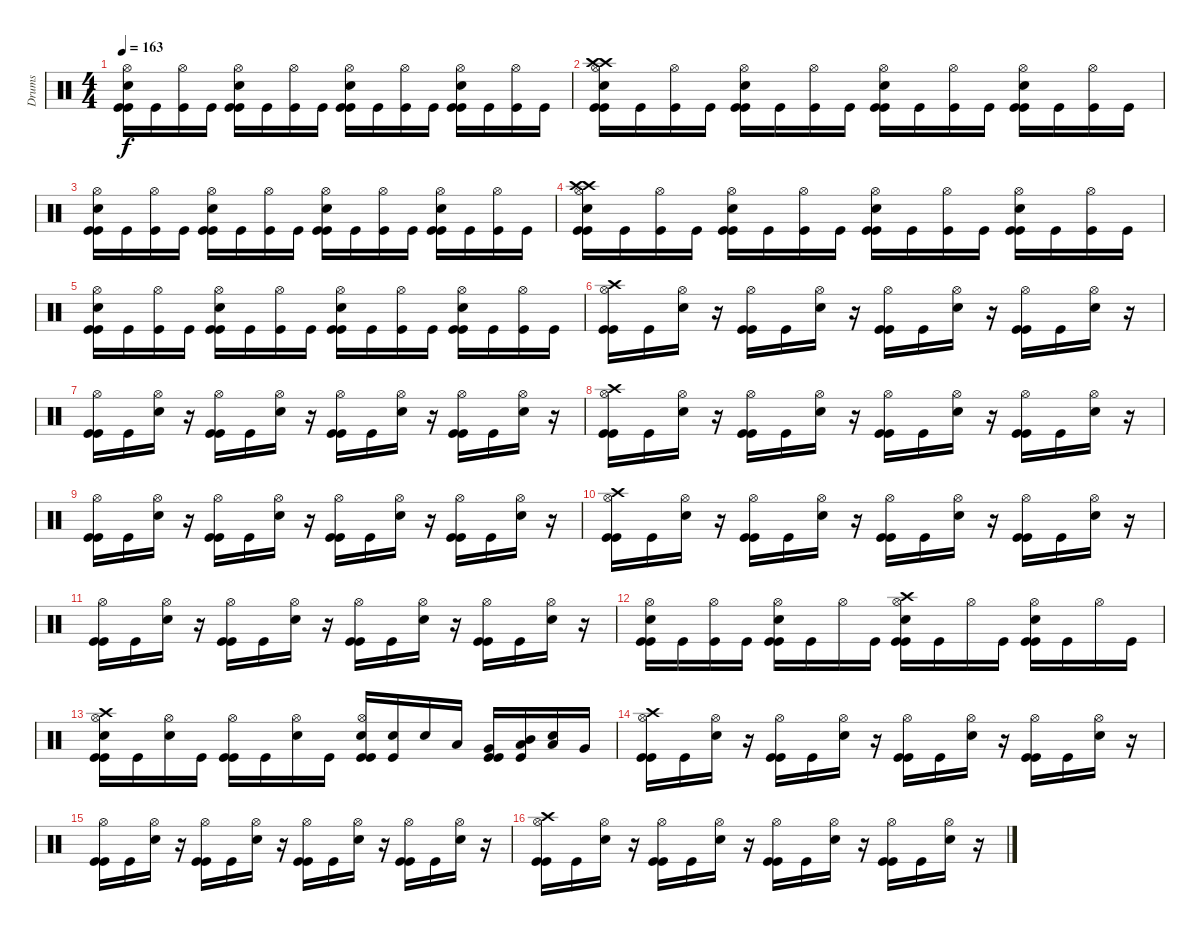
\track ("Drums" "Drums") {instrument percussion}
\staff {score}
\articulation defaults
\ts (4 4)
\tempo 163
\clef neutral
\ks c
("Electric Snare (hit)" "Hi-Hat (open)" "Kick (hit)" "Kick (hit)").16{dy f} "Kick (hit)".16 ("Kick (hit)" "Hi-Hat (open)").16 "Kick (hit)".16 ("Electric Snare (hit)" "Hi-Hat (open)" "Kick (hit)" "Kick (hit)").16 "Kick (hit)".16 ("Kick (hit)" "Hi-Hat (open)").16 "Kick (hit)".16 ("Electric Snare (hit)" "Hi-Hat (open)" "Kick (hit)" "Kick (hit)").16 "Kick (hit)".16 ("Kick (hit)" "Hi-Hat (open)").16 "Kick (hit)".16 ("Electric Snare (hit)" "Hi-Hat (open)" "Kick (hit)" "Kick (hit)").16 "Kick (hit)".16 ("Kick (hit)" "Hi-Hat (open)").16 "Kick (hit)".16 |
("Electric Snare (hit)" "Crash high (hit)" "Crash high (hit)" "Hi-Hat (open)" "Kick (hit)" "Kick (hit)").16 "Kick (hit)".16 ("Kick (hit)" "Hi-Hat (open)").16 "Kick (hit)".16 ("Electric Snare (hit)" "Hi-Hat (open)" "Kick (hit)" "Kick (hit)").16 "Kick (hit)".16 ("Kick (hit)" "Hi-Hat (open)").16 "Kick (hit)".16 ("Electric Snare (hit)" "Hi-Hat (open)" "Kick (hit)" "Kick (hit)").16 "Kick (hit)".16 ("Kick (hit)" "Hi-Hat (open)").16 "Kick (hit)".16 ("Electric Snare (hit)" "Hi-Hat (open)" "Kick (hit)" "Kick (hit)").16 "Kick (hit)".16 ("Kick (hit)" "Hi-Hat (open)").16 "Kick (hit)".16 |
("Electric Snare (hit)" "Hi-Hat (open)" "Kick (hit)" "Kick (hit)").16 "Kick (hit)".16 ("Kick (hit)" "Hi-Hat (open)").16 "Kick (hit)".16 ("Electric Snare (hit)" "Hi-Hat (open)" "Kick (hit)" "Kick (hit)").16 "Kick (hit)".16 ("Kick (hit)" "Hi-Hat (open)").16 "Kick (hit)".16 ("Electric Snare (hit)" "Hi-Hat (open)" "Kick (hit)" "Kick (hit)").16 "Kick (hit)".16 ("Kick (hit)" "Hi-Hat (open)").16 "Kick (hit)".16 ("Electric Snare (hit)" "Hi-Hat (open)" "Kick (hit)" "Kick (hit)").16 "Kick (hit)".16 ("Kick (hit)" "Hi-Hat (open)").16 "Kick (hit)".16 |
("Electric Snare (hit)" "Crash high (hit)" "Crash high (hit)" "Hi-Hat (open)" "Kick (hit)" "Kick (hit)").16 "Kick (hit)".16 ("Kick (hit)" "Hi-Hat (open)").16 "Kick (hit)".16 ("Electric Snare (hit)" "Hi-Hat (open)" "Kick (hit)" "Kick (hit)").16 "Kick (hit)".16 ("Kick (hit)" "Hi-Hat (open)").16 "Kick (hit)".16 ("Electric Snare (hit)" "Hi-Hat (open)" "Kick (hit)" "Kick (hit)").16 "Kick (hit)".16 ("Kick (hit)" "Hi-Hat (open)").16 "Kick (hit)".16 ("Electric Snare (hit)" "Hi-Hat (open)" "Kick (hit)" "Kick (hit)").16 "Kick (hit)".16 ("Kick (hit)" "Hi-Hat (open)").16 "Kick (hit)".16 |
("Electric Snare (hit)" "Hi-Hat (open)" "Kick (hit)" "Kick (hit)").16 "Kick (hit)".16 ("Kick (hit)" "Hi-Hat (open)").16 "Kick (hit)".16 ("Electric Snare (hit)" "Hi-Hat (open)" "Kick (hit)" "Kick (hit)").16 "Kick (hit)".16 ("Kick (hit)" "Hi-Hat (open)").16 "Kick (hit)".16 ("Electric Snare (hit)" "Hi-Hat (open)" "Kick (hit)" "Kick (hit)").16 "Kick (hit)".16 ("Kick (hit)" "Hi-Hat (open)").16 "Kick (hit)".16 ("Electric Snare (hit)" "Hi-Hat (open)" "Kick (hit)" "Kick (hit)").16 "Kick (hit)".16 ("Kick (hit)" "Hi-Hat (open)").16 "Kick (hit)".16 |
("Crash high (hit)" "Hi-Hat (open)" "Kick (hit)" "Kick (hit)").16 "Kick (hit)".16 ("Hi-Hat (open)" "Electric Snare (hit)").16 r.16 ("Hi-Hat (open)" "Kick (hit)" "Kick (hit)").16 "Kick (hit)".16 ("Hi-Hat (open)" "Electric Snare (hit)").16 r.16 ("Hi-Hat (open)" "Kick (hit)" "Kick (hit)").16 "Kick (hit)".16 ("Hi-Hat (open)" "Electric Snare (hit)").16 r.16 ("Hi-Hat (open)" "Kick (hit)" "Kick (hit)").16 "Kick (hit)".16 ("Hi-Hat (open)" "Electric Snare (hit)").16 r.16 |
("Hi-Hat (open)" "Kick (hit)" "Kick (hit)").16 "Kick (hit)".16 ("Hi-Hat (open)" "Electric Snare (hit)").16 r.16 ("Hi-Hat (open)" "Kick (hit)" "Kick (hit)").16 "Kick (hit)".16 ("Hi-Hat (open)" "Electric Snare (hit)").16 r.16 ("Hi-Hat (open)" "Kick (hit)" "Kick (hit)").16 "Kick (hit)".16 ("Hi-Hat (open)" "Electric Snare (hit)").16 r.16 ("Hi-Hat (open)" "Kick (hit)" "Kick (hit)").16 "Kick (hit)".16 ("Hi-Hat (open)" "Electric Snare (hit)").16 r.16 |
("Crash high (hit)" "Hi-Hat (open)" "Kick (hit)" "Kick (hit)").16 "Kick (hit)".16 ("Hi-Hat (open)" "Electric Snare (hit)").16 r.16 ("Hi-Hat (open)" "Kick (hit)" "Kick (hit)").16 "Kick (hit)".16 ("Hi-Hat (open)" "Electric Snare (hit)").16 r.16 ("Hi-Hat (open)" "Kick (hit)" "Kick (hit)").16 "Kick (hit)".16 ("Hi-Hat (open)" "Electric Snare (hit)").16 r.16 ("Hi-Hat (open)" "Kick (hit)" "Kick (hit)").16 "Kick (hit)".16 ("Hi-Hat (open)" "Electric Snare (hit)").16 r.16 |
("Hi-Hat (open)" "Kick (hit)" "Kick (hit)").16 "Kick (hit)".16 ("Hi-Hat (open)" "Electric Snare (hit)").16 r.16 ("Hi-Hat (open)" "Kick (hit)" "Kick (hit)").16 "Kick (hit)".16 ("Hi-Hat (open)" "Electric Snare (hit)").16 r.16 ("Hi-Hat (open)" "Kick (hit)" "Kick (hit)").16 "Kick (hit)".16 ("Hi-Hat (open)" "Electric Snare (hit)").16 r.16 ("Hi-Hat (open)" "Kick (hit)" "Kick (hit)").16 "Kick (hit)".16 ("Hi-Hat (open)" "Electric Snare (hit)").16 r.16 |
("Crash high (hit)" "Hi-Hat (open)" "Kick (hit)" "Kick (hit)").16 "Kick (hit)".16 ("Hi-Hat (open)" "Electric Snare (hit)").16 r.16 ("Hi-Hat (open)" "Kick (hit)" "Kick (hit)").16 "Kick (hit)".16 ("Hi-Hat (open)" "Electric Snare (hit)").16 r.16 ("Hi-Hat (open)" "Kick (hit)" "Kick (hit)").16 "Kick (hit)".16 ("Hi-Hat (open)" "Electric Snare (hit)").16 r.16 ("Hi-Hat (open)" "Kick (hit)" "Kick (hit)").16 "Kick (hit)".16 ("Hi-Hat (open)" "Electric Snare (hit)").16 r.16 |
("Hi-Hat (open)" "Kick (hit)" "Kick (hit)").16 "Kick (hit)".16 ("Hi-Hat (open)" "Electric Snare (hit)").16 r.16 ("Hi-Hat (open)" "Kick (hit)" "Kick (hit)").16 "Kick (hit)".16 ("Hi-Hat (open)" "Electric Snare (hit)").16 r.16 ("Hi-Hat (open)" "Kick (hit)" "Kick (hit)").16 "Kick (hit)".16 ("Hi-Hat (open)" "Electric Snare (hit)").16 r.16 ("Hi-Hat (open)" "Kick (hit)" "Kick (hit)").16 "Kick (hit)".16 ("Hi-Hat (open)" "Electric Snare (hit)").16 r.16 |
("Electric Snare (hit)" "Hi-Hat (open)" "Kick (hit)" "Kick (hit)").16 "Kick (hit)".16 ("Kick (hit)" "Hi-Hat (open)").16 "Kick (hit)".16 ("Electric Snare (hit)" "Hi-Hat (open)" "Kick (hit)" "Kick (hit)").16 "Kick (hit)".16 "Hi-Hat (open)".16 "Kick (hit)".16 ("Crash high (hit)" "Electric Snare (hit)" "Hi-Hat (open)" "Kick (hit)" "Kick (hit)").16 "Kick (hit)".16 "Hi-Hat (open)".16 "Kick (hit)".16 ("Electric Snare (hit)" "Hi-Hat (open)" "Kick (hit)" "Kick (hit)").16 "Kick (hit)".16 "Hi-Hat (open)".16 "Kick (hit)".16 |
("Electric Snare (hit)" "Crash high (hit)" "Hi-Hat (open)" "Kick (hit)" "Kick (hit)").16 "Kick (hit)".16 ("Hi-Hat (open)" "Electric Snare (hit)").16 "Kick (hit)".16 ("Hi-Hat (open)" "Kick (hit)" "Kick (hit)").16 "Kick (hit)".16 ("Hi-Hat (open)" "Electric Snare (hit)").16 "Kick (hit)".16 ("Electric Snare (hit)" "Hi-Hat (open)" "Kick (hit)" "Kick (hit)").16 ("Electric Snare (hit)" "Kick (hit)").16 "Electric Snare (hit)".16 "Low Floor Tom (hit)".16 ("Very Low Tom (hit)" "Kick (hit)" "Kick (hit)").16 ("Mid Tom (hit)" "Low Floor Tom (hit)" "Kick (hit)").16 ("Low Tom (hit)" "Electric Snare (hit)").16 "Very Low Tom (hit)".16 |
("Crash high (hit)" "Hi-Hat (open)" "Kick (hit)" "Kick (hit)").16 "Kick (hit)".16 ("Hi-Hat (open)" "Electric Snare (hit)").16 r.16 ("Hi-Hat (open)" "Kick (hit)" "Kick (hit)").16 "Kick (hit)".16 ("Hi-Hat (open)" "Electric Snare (hit)").16 r.16 ("Hi-Hat (open)" "Kick (hit)" "Kick (hit)").16 "Kick (hit)".16 ("Hi-Hat (open)" "Electric Snare (hit)").16 r.16 ("Hi-Hat (open)" "Kick (hit)" "Kick (hit)").16 "Kick (hit)".16 ("Hi-Hat (open)" "Electric Snare (hit)").16 r.16 |
("Hi-Hat (open)" "Kick (hit)" "Kick (hit)").16 "Kick (hit)".16 ("Hi-Hat (open)" "Electric Snare (hit)").16 r.16 ("Hi-Hat (open)" "Kick (hit)" "Kick (hit)").16 "Kick (hit)".16 ("Hi-Hat (open)" "Electric Snare (hit)").16 r.16 ("Hi-Hat (open)" "Kick (hit)" "Kick (hit)").16 "Kick (hit)".16 ("Hi-Hat (open)" "Electric Snare (hit)").16 r.16 ("Hi-Hat (open)" "Kick (hit)" "Kick (hit)").16 "Kick (hit)".16 ("Hi-Hat (open)" "Electric Snare (hit)").16 r.16 |
("Crash high (hit)" "Hi-Hat (open)" "Kick (hit)" "Kick (hit)").16 "Kick (hit)".16 ("Hi-Hat (open)" "Electric Snare (hit)").16 r.16 ("Hi-Hat (open)" "Kick (hit)" "Kick (hit)").16 "Kick (hit)".16 ("Hi-Hat (open)" "Electric Snare (hit)").16 r.16 ("Hi-Hat (open)" "Kick (hit)" "Kick (hit)").16 "Kick (hit)".16 ("Hi-Hat (open)" "Electric Snare (hit)").16 r.16 ("Hi-Hat (open)" "Kick (hit)" "Kick (hit)").16 "Kick (hit)".16 ("Hi-Hat (open)" "Electric Snare (hit)").16 r.16
